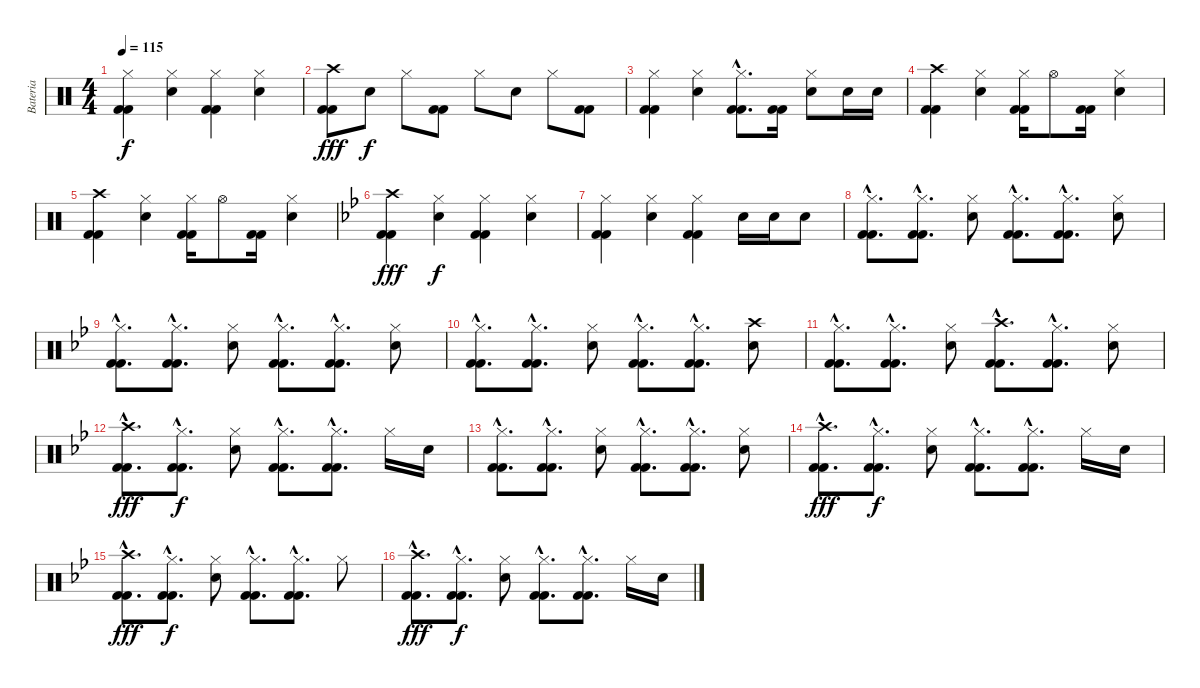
\track ("Bateria" "Bateria") {instrument percussion}
\staff {score}
\articulation defaults
\ts (4 4)
\tempo 115
\clef neutral
\ks c
("Hi-Hat (closed)" "Kick (hit) 2" "Kick (hit) 2").4{dy f} ("Hi-Hat (closed)" "Electric Snare (hit)").4 ("Hi-Hat (closed)" "Kick (hit) 2" "Kick (hit) 2").4 ("Hi-Hat (closed)" "Electric Snare (hit)").4 |
("Crash high (hit)" "Kick (hit) 2" "Kick (hit) 2").8{dy fff} "Electric Snare (hit)".8{dy f} "Hi-Hat (closed)".8 ("Kick (hit) 2" "Kick (hit) 2").8 "Hi-Hat (closed)".8 "Electric Snare (hit)".8 "Hi-Hat (closed)".8 ("Kick (hit) 2" "Kick (hit) 2").8 |
("Hi-Hat (closed)" "Kick (hit) 2" "Kick (hit) 2").4 ("Hi-Hat (closed)" "Electric Snare (hit)").4 ("Hi-Hat (closed)"{hac} "Kick (hit) 2"{hac} "Kick (hit) 2"{hac}).8{d} ("Kick (hit) 2" "Kick (hit) 2").16 ("Hi-Hat (closed)" "Electric Snare (hit)").8 "Electric Snare (hit)".16 "Electric Snare (hit)".16 |
("Crash high (hit)" "Kick (hit) 2" "Kick (hit) 2").4 ("Hi-Hat (closed)" "Electric Snare (hit)").4 ("Hi-Hat (closed)" "Kick (hit) 2" "Kick (hit) 2").16 "Hi-Hat (open)".8 ("Kick (hit) 2" "Kick (hit) 2").16 ("Hi-Hat (closed)" "Electric Snare (hit)").4 |
("Crash high (hit)" "Kick (hit) 2" "Kick (hit) 2").4 ("Hi-Hat (closed)" "Electric Snare (hit)").4 ("Hi-Hat (closed)" "Kick (hit) 2" "Kick (hit) 2").16 "Hi-Hat (open)".8 ("Kick (hit) 2" "Kick (hit) 2").16 ("Hi-Hat (closed)" "Electric Snare (hit)").4 |
\ks bb
("Crash high (hit)" "Kick (hit) 2" "Kick (hit) 2").4{dy fff} ("Hi-Hat (closed)" "Electric Snare (hit)").4{dy f} ("Hi-Hat (closed)" "Kick (hit) 2" "Kick (hit) 2").4 ("Hi-Hat (closed)" "Electric Snare (hit)").4 |
("Hi-Hat (closed)" "Kick (hit) 2" "Kick (hit) 2").4 ("Hi-Hat (closed)" "Electric Snare (hit)").4 ("Hi-Hat (closed)" "Kick (hit) 2" "Kick (hit) 2").4 "Electric Snare (hit)".16 "Electric Snare (hit)".16 "Electric Snare (hit)".8 |
("Hi-Hat (closed)"{hac} "Kick (hit) 2"{hac} "Kick (hit) 2"{hac}).8{d} ("Hi-Hat (closed)"{hac} "Kick (hit) 2"{hac} "Kick (hit) 2"{hac}).8{d} ("Hi-Hat (closed)" "Electric Snare (hit)").8 ("Hi-Hat (closed)"{hac} "Kick (hit) 2"{hac} "Kick (hit) 2"{hac}).8{d} ("Hi-Hat (closed)"{hac} "Kick (hit) 2"{hac} "Kick (hit) 2"{hac}).8{d} ("Hi-Hat (closed)" "Electric Snare (hit)").8 |
("Hi-Hat (closed)"{hac} "Kick (hit) 2"{hac} "Kick (hit) 2"{hac}).8{d} ("Hi-Hat (closed)"{hac} "Kick (hit) 2"{hac} "Kick (hit) 2"{hac}).8{d} ("Hi-Hat (closed)" "Electric Snare (hit)").8 ("Hi-Hat (closed)"{hac} "Kick (hit) 2"{hac} "Kick (hit) 2"{hac}).8{d} ("Hi-Hat (closed)"{hac} "Kick (hit) 2"{hac} "Kick (hit) 2"{hac}).8{d} ("Hi-Hat (closed)" "Electric Snare (hit)").8 |
("Hi-Hat (closed)"{hac} "Kick (hit) 2"{hac} "Kick (hit) 2"{hac}).8{d} ("Hi-Hat (closed)"{hac} "Kick (hit) 2"{hac} "Kick (hit) 2"{hac}).8{d} ("Hi-Hat (closed)" "Electric Snare (hit)").8 ("Hi-Hat (closed)"{hac} "Kick (hit) 2"{hac} "Kick (hit) 2"{hac}).8{d} ("Hi-Hat (closed)"{hac} "Kick (hit) 2"{hac} "Kick (hit) 2"{hac}).8{d} ("Crash high (hit)" "Electric Snare (hit)").8 |
("Hi-Hat (closed)"{hac} "Kick (hit) 2"{hac} "Kick (hit) 2"{hac}).8{d} ("Hi-Hat (closed)"{hac} "Kick (hit) 2"{hac} "Kick (hit) 2"{hac}).8{d} ("Hi-Hat (closed)" "Electric Snare (hit)").8 ("Crash high (hit)"{hac} "Kick (hit) 2"{hac} "Kick (hit) 2"{hac}).8{d} ("Hi-Hat (closed)"{hac} "Kick (hit) 2"{hac} "Kick (hit) 2"{hac}).8{d} ("Hi-Hat (closed)" "Electric Snare (hit)").8 |
("Crash high (hit)" "Kick (hit) 2"{hac} "Kick (hit) 2"{hac}).8{d dy fff} ("Hi-Hat (closed)"{hac} "Kick (hit) 2"{hac} "Kick (hit) 2"{hac}).8{d dy f} ("Hi-Hat (closed)" "Electric Snare (hit)").8 ("Hi-Hat (closed)"{hac} "Kick (hit) 2"{hac} "Kick (hit) 2"{hac}).8{d} ("Hi-Hat (closed)"{hac} "Kick (hit) 2"{hac} "Kick (hit) 2"{hac}).8{d} "Hi-Hat (closed)".16 "Electric Snare (hit)".16 |
("Hi-Hat (closed)"{hac} "Kick (hit) 2"{hac} "Kick (hit) 2"{hac}).8{d} ("Hi-Hat (closed)"{hac} "Kick (hit) 2"{hac} "Kick (hit) 2"{hac}).8{d} ("Hi-Hat (closed)" "Electric Snare (hit)").8 ("Hi-Hat (closed)"{hac} "Kick (hit) 2"{hac} "Kick (hit) 2"{hac}).8{d} ("Hi-Hat (closed)"{hac} "Kick (hit) 2"{hac} "Kick (hit) 2"{hac}).8{d} ("Hi-Hat (closed)" "Electric Snare (hit)").8 |
("Crash high (hit)" "Kick (hit) 2"{hac} "Kick (hit) 2"{hac}).8{d dy fff} ("Hi-Hat (closed)"{hac} "Kick (hit) 2"{hac} "Kick (hit) 2"{hac}).8{d dy f} ("Hi-Hat (closed)" "Electric Snare (hit)").8 ("Hi-Hat (closed)"{hac} "Kick (hit) 2"{hac} "Kick (hit) 2"{hac}).8{d} ("Hi-Hat (closed)"{hac} "Kick (hit) 2"{hac} "Kick (hit) 2"{hac}).8{d} "Hi-Hat (closed)".16 "Electric Snare (hit)".16 |
("Crash high (hit)" "Kick (hit) 2"{hac} "Kick (hit) 2"{hac}).8{d dy fff} ("Hi-Hat (closed)"{hac} "Kick (hit) 2"{hac} "Kick (hit) 2"{hac}).8{d dy f} ("Hi-Hat (closed)" "Electric Snare (hit)").8 ("Hi-Hat (closed)"{hac} "Kick (hit) 2"{hac} "Kick (hit) 2"{hac}).8{d} ("Hi-Hat (closed)"{hac} "Kick (hit) 2"{hac} "Kick (hit) 2"{hac}).8{d} "Hi-Hat (closed)".8 |
("Crash high (hit)" "Kick (hit) 2"{hac} "Kick (hit) 2"{hac}).8{d dy fff} ("Hi-Hat (closed)"{hac} "Kick (hit) 2"{hac} "Kick (hit) 2"{hac}).8{d dy f} ("Hi-Hat (closed)" "Electric Snare (hit)").8 ("Hi-Hat (closed)"{hac} "Kick (hit) 2"{hac} "Kick (hit) 2"{hac}).8{d} ("Hi-Hat (closed)"{hac} "Kick (hit) 2"{hac} "Kick (hit) 2"{hac}).8{d} "Hi-Hat (closed)".16 "Electric Snare (hit)".16
